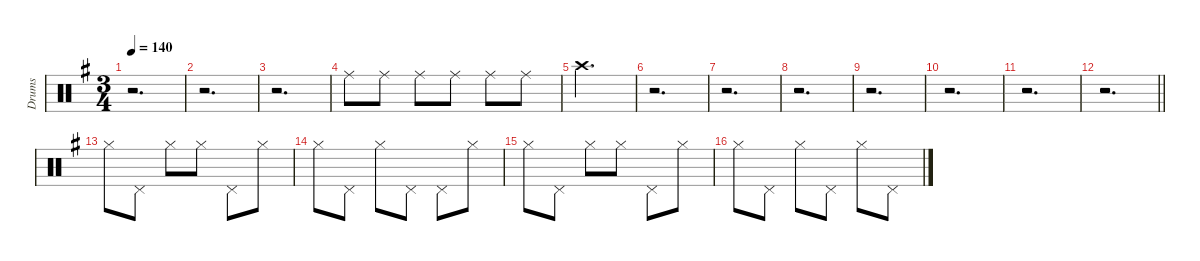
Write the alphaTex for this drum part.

\defaultSystemsLayout 8
\hideDynamics
\bracketExtendMode groupsimilarinstruments
\firstSystemTrackNameMode fullname
\otherSystemsTrackNameOrientation horizontal
\track ("Drums" "drm.") {defaultSystemsLayout 4 instrument percussion}
\staff {score}
\articulation defaults
\ts (3 4)
\tempo 140
\clef neutral
\ks g
r.2{d dy mf beam Down} |
r.2{d beam Down} |
r.2{d beam Down} |
"Ride (middle)"{acc forcenatural}.8{dy mp beam Down} "Ride (middle)"{acc forcenatural}.8{beam Down} "Ride (middle)"{acc forcenatural}.8{dy mf beam Down} "Ride (middle)"{acc forcenatural}.8{beam Down} "Ride (middle)"{acc forcenatural}.8{dy f beam Down} "Ride (middle)"{acc forcenatural}.8{beam Down} |
"Crash high (hit)"{acc forcenatural}.2{d dy ff beam Down} |
r.2{d beam Down} |
r.2{d beam Down} |
r.2{d beam Down} |
r.2{d beam Down} |
r.2{d beam Down} |
r.2{d beam Down} |
\barLineRight lightlight
r.2{d beam Down} |
"Hi-Hat (closed)"{acc forcenatural}.8{dy mp beam Down} "Pedal Hi-Hat (hit)"{acc forcenatural}.8{beam Down} "Hi-Hat (closed)"{acc forcenatural}.8{beam Down} "Hi-Hat (closed)"{acc forcenatural}.8{beam Down} "Pedal Hi-Hat (hit)"{acc forcenatural}.8{beam Down} "Hi-Hat (closed)"{acc forcenatural}.8{beam Down} |
"Hi-Hat (closed)"{acc forcenatural}.8{beam Down} "Pedal Hi-Hat (hit)"{acc forcenatural}.8{beam Down} "Hi-Hat (closed)"{acc forcenatural}.8{beam Down} "Pedal Hi-Hat (hit)"{acc forcenatural}.8{beam Down} "Pedal Hi-Hat (hit)"{acc forcenatural}.8{beam Down} "Hi-Hat (closed)"{acc forcenatural}.8{beam Down} |
"Hi-Hat (closed)"{acc forcenatural}.8{beam Down} "Pedal Hi-Hat (hit)"{acc forcenatural}.8{beam Down} "Hi-Hat (closed)"{acc forcenatural}.8{beam Down} "Hi-Hat (closed)"{acc forcenatural}.8{beam Down} "Pedal Hi-Hat (hit)"{acc forcenatural}.8{beam Down} "Hi-Hat (closed)"{acc forcenatural}.8{beam Down} |
"Hi-Hat (closed)"{acc forcenatural}.8{beam Down} "Pedal Hi-Hat (hit)"{acc forcenatural}.8{beam Down} "Hi-Hat (closed)"{acc forcenatural}.8{beam Down} "Pedal Hi-Hat (hit)"{acc forcenatural}.8{beam Down} "Hi-Hat (closed)"{acc forcenatural}.8{beam Down} "Pedal Hi-Hat (hit)"{acc forcenatural}.8{beam Down}
